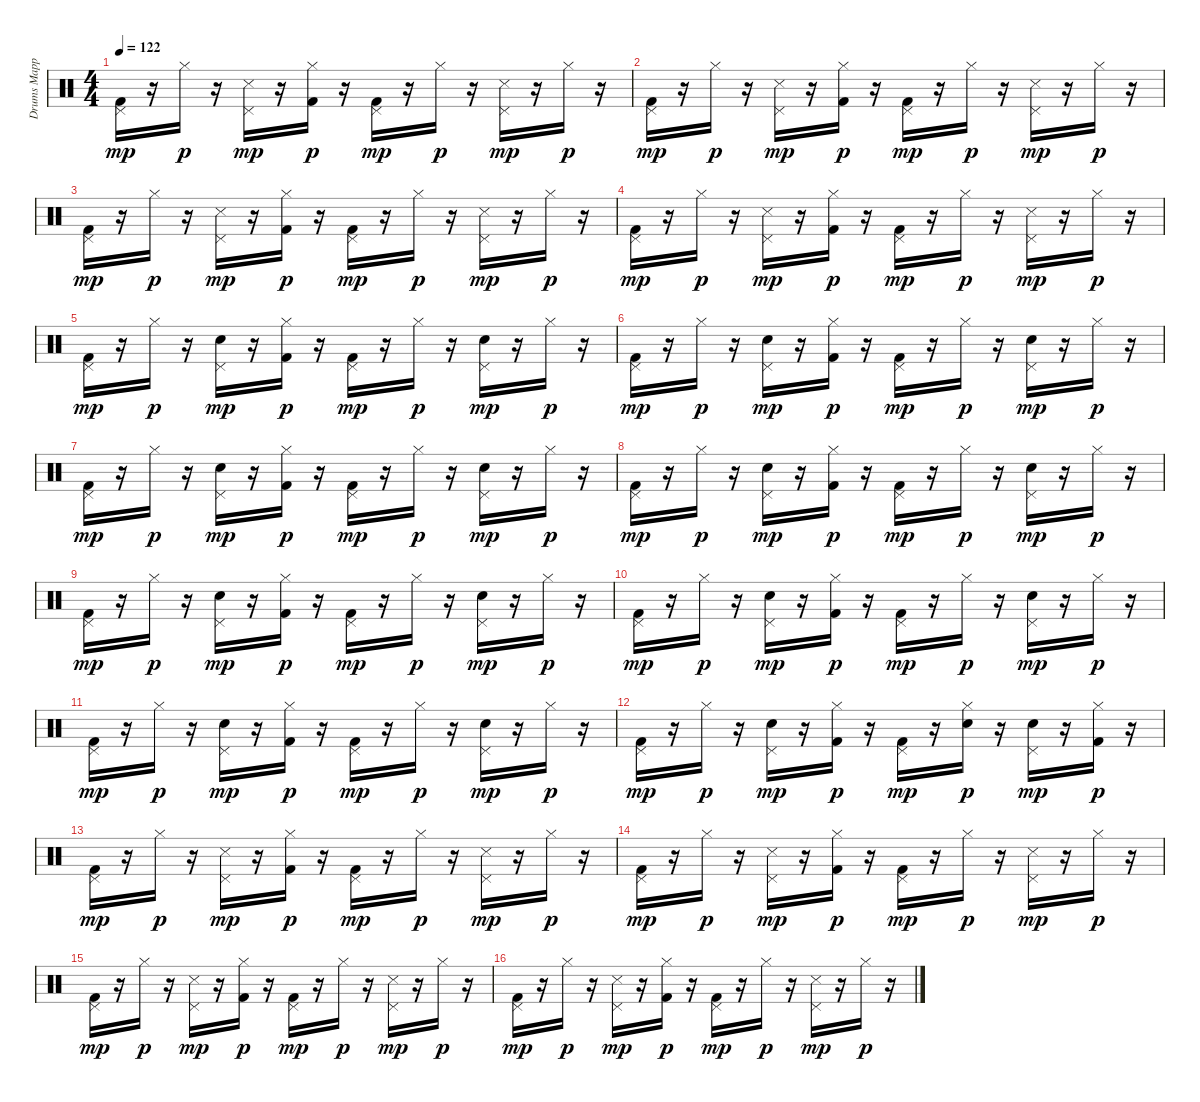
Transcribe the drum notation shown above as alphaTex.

\track ("Drums Mapped*merged" "Drums Mapp") {instrument percussion}
\staff {score}
\articulation defaults
\ts (4 4)
\tempo 122
\clef neutral
\ks c
("Kick (hit) 2" "Pedal Hi-Hat (hit)").16{dy mp} r.16 "Hi-Hat (closed)".16{dy p} r.16 ("Snare (side stick) 3" "Pedal Hi-Hat (hit)").16{dy mp} r.16 ("Kick (hit) 2" "Hi-Hat (closed)").16{dy p} r.16 ("Kick (hit) 2" "Pedal Hi-Hat (hit)").16{dy mp} r.16 "Hi-Hat (closed)".16{dy p} r.16 ("Snare (side stick) 3" "Pedal Hi-Hat (hit)").16{dy mp} r.16 "Hi-Hat (closed)".16{dy p} r.16 |
("Kick (hit) 2" "Pedal Hi-Hat (hit)").16{dy mp} r.16 "Hi-Hat (closed)".16{dy p} r.16 ("Snare (side stick) 3" "Pedal Hi-Hat (hit)").16{dy mp} r.16 ("Kick (hit) 2" "Hi-Hat (closed)").16{dy p} r.16 ("Kick (hit) 2" "Pedal Hi-Hat (hit)").16{dy mp} r.16 "Hi-Hat (closed)".16{dy p} r.16 ("Snare (side stick) 3" "Pedal Hi-Hat (hit)").16{dy mp} r.16 "Hi-Hat (closed)".16{dy p} r.16 |
("Kick (hit) 2" "Pedal Hi-Hat (hit)").16{dy mp} r.16 "Hi-Hat (closed)".16{dy p} r.16 ("Snare (side stick) 3" "Pedal Hi-Hat (hit)").16{dy mp} r.16 ("Kick (hit) 2" "Hi-Hat (closed)").16{dy p} r.16 ("Kick (hit) 2" "Pedal Hi-Hat (hit)").16{dy mp} r.16 "Hi-Hat (closed)".16{dy p} r.16 ("Snare (side stick) 3" "Pedal Hi-Hat (hit)").16{dy mp} r.16 "Hi-Hat (closed)".16{dy p} r.16 |
("Kick (hit) 2" "Pedal Hi-Hat (hit)").16{dy mp} r.16 "Hi-Hat (closed)".16{dy p} r.16 ("Snare (side stick) 3" "Pedal Hi-Hat (hit)").16{dy mp} r.16 ("Kick (hit) 2" "Hi-Hat (closed)").16{dy p} r.16 ("Kick (hit) 2" "Pedal Hi-Hat (hit)").16{dy mp} r.16 "Hi-Hat (closed)".16{dy p} r.16 ("Snare (side stick) 3" "Pedal Hi-Hat (hit)").16{dy mp} r.16 "Hi-Hat (closed)".16{dy p} r.16 |
("Kick (hit) 2" "Pedal Hi-Hat (hit)").16{dy mp} r.16 "Hi-Hat (closed)".16{dy p} r.16 ("Electric Snare (hit)" "Pedal Hi-Hat (hit)").16{dy mp} r.16 ("Kick (hit) 2" "Hi-Hat (closed)").16{dy p} r.16 ("Kick (hit) 2" "Pedal Hi-Hat (hit)").16{dy mp} r.16 "Hi-Hat (closed)".16{dy p} r.16 ("Electric Snare (hit)" "Pedal Hi-Hat (hit)").16{dy mp} r.16 "Hi-Hat (closed)".16{dy p} r.16 |
("Kick (hit) 2" "Pedal Hi-Hat (hit)").16{dy mp} r.16 "Hi-Hat (closed)".16{dy p} r.16 ("Electric Snare (hit)" "Pedal Hi-Hat (hit)").16{dy mp} r.16 ("Kick (hit) 2" "Hi-Hat (closed)").16{dy p} r.16 ("Kick (hit) 2" "Pedal Hi-Hat (hit)").16{dy mp} r.16 "Hi-Hat (closed)".16{dy p} r.16 ("Electric Snare (hit)" "Pedal Hi-Hat (hit)").16{dy mp} r.16 "Hi-Hat (closed)".16{dy p} r.16 |
("Kick (hit) 2" "Pedal Hi-Hat (hit)").16{dy mp} r.16 "Hi-Hat (closed)".16{dy p} r.16 ("Electric Snare (hit)" "Pedal Hi-Hat (hit)").16{dy mp} r.16 ("Kick (hit) 2" "Hi-Hat (closed)").16{dy p} r.16 ("Kick (hit) 2" "Pedal Hi-Hat (hit)").16{dy mp} r.16 "Hi-Hat (closed)".16{dy p} r.16 ("Electric Snare (hit)" "Pedal Hi-Hat (hit)").16{dy mp} r.16 "Hi-Hat (closed)".16{dy p} r.16 |
("Kick (hit) 2" "Pedal Hi-Hat (hit)").16{dy mp} r.16 "Hi-Hat (closed)".16{dy p} r.16 ("Electric Snare (hit)" "Pedal Hi-Hat (hit)").16{dy mp} r.16 ("Kick (hit) 2" "Hi-Hat (closed)").16{dy p} r.16 ("Kick (hit) 2" "Pedal Hi-Hat (hit)").16{dy mp} r.16 "Hi-Hat (closed)".16{dy p} r.16 ("Electric Snare (hit)" "Pedal Hi-Hat (hit)").16{dy mp} r.16 "Hi-Hat (closed)".16{dy p} r.16 |
("Kick (hit) 2" "Pedal Hi-Hat (hit)").16{dy mp} r.16 "Hi-Hat (closed)".16{dy p} r.16 ("Electric Snare (hit)" "Pedal Hi-Hat (hit)").16{dy mp} r.16 ("Kick (hit) 2" "Hi-Hat (closed)").16{dy p} r.16 ("Kick (hit) 2" "Pedal Hi-Hat (hit)").16{dy mp} r.16 "Hi-Hat (closed)".16{dy p} r.16 ("Electric Snare (hit)" "Pedal Hi-Hat (hit)").16{dy mp} r.16 "Hi-Hat (closed)".16{dy p} r.16 |
("Kick (hit) 2" "Pedal Hi-Hat (hit)").16{dy mp} r.16 "Hi-Hat (closed)".16{dy p} r.16 ("Electric Snare (hit)" "Pedal Hi-Hat (hit)").16{dy mp} r.16 ("Kick (hit) 2" "Hi-Hat (closed)").16{dy p} r.16 ("Kick (hit) 2" "Pedal Hi-Hat (hit)").16{dy mp} r.16 "Hi-Hat (closed)".16{dy p} r.16 ("Electric Snare (hit)" "Pedal Hi-Hat (hit)").16{dy mp} r.16 "Hi-Hat (closed)".16{dy p} r.16 |
("Kick (hit) 2" "Pedal Hi-Hat (hit)").16{dy mp} r.16 "Hi-Hat (closed)".16{dy p} r.16 ("Electric Snare (hit)" "Pedal Hi-Hat (hit)").16{dy mp} r.16 ("Kick (hit) 2" "Hi-Hat (closed)").16{dy p} r.16 ("Kick (hit) 2" "Pedal Hi-Hat (hit)").16{dy mp} r.16 "Hi-Hat (closed)".16{dy p} r.16 ("Electric Snare (hit)" "Pedal Hi-Hat (hit)").16{dy mp} r.16 "Hi-Hat (closed)".16{dy p} r.16 |
("Kick (hit) 2" "Pedal Hi-Hat (hit)").16{dy mp} r.16 "Hi-Hat (closed)".16{dy p} r.16 ("Electric Snare (hit)" "Pedal Hi-Hat (hit)").16{dy mp} r.16 ("Kick (hit) 2" "Hi-Hat (closed)").16{dy p} r.16 ("Kick (hit) 2" "Pedal Hi-Hat (hit)").16{dy mp} r.16 ("Electric Snare (hit)" "Hi-Hat (closed)").16{dy p} r.16 ("Electric Snare (hit)" "Pedal Hi-Hat (hit)").16{dy mp} r.16 ("Kick (hit) 2" "Hi-Hat (closed)").16{dy p} r.16 |
("Kick (hit) 2" "Pedal Hi-Hat (hit)").16{dy mp} r.16 "Hi-Hat (closed)".16{dy p} r.16 ("Snare (side stick) 3" "Pedal Hi-Hat (hit)").16{dy mp} r.16 ("Kick (hit) 2" "Hi-Hat (closed)").16{dy p} r.16 ("Kick (hit) 2" "Pedal Hi-Hat (hit)").16{dy mp} r.16 "Hi-Hat (closed)".16{dy p} r.16 ("Snare (side stick) 3" "Pedal Hi-Hat (hit)").16{dy mp} r.16 "Hi-Hat (closed)".16{dy p} r.16 |
("Kick (hit) 2" "Pedal Hi-Hat (hit)").16{dy mp} r.16 "Hi-Hat (closed)".16{dy p} r.16 ("Snare (side stick) 3" "Pedal Hi-Hat (hit)").16{dy mp} r.16 ("Kick (hit) 2" "Hi-Hat (closed)").16{dy p} r.16 ("Kick (hit) 2" "Pedal Hi-Hat (hit)").16{dy mp} r.16 "Hi-Hat (closed)".16{dy p} r.16 ("Snare (side stick) 3" "Pedal Hi-Hat (hit)").16{dy mp} r.16 "Hi-Hat (closed)".16{dy p} r.16 |
("Kick (hit) 2" "Pedal Hi-Hat (hit)").16{dy mp} r.16 "Hi-Hat (closed)".16{dy p} r.16 ("Snare (side stick) 3" "Pedal Hi-Hat (hit)").16{dy mp} r.16 ("Kick (hit) 2" "Hi-Hat (closed)").16{dy p} r.16 ("Kick (hit) 2" "Pedal Hi-Hat (hit)").16{dy mp} r.16 "Hi-Hat (closed)".16{dy p} r.16 ("Snare (side stick) 3" "Pedal Hi-Hat (hit)").16{dy mp} r.16 "Hi-Hat (closed)".16{dy p} r.16 |
("Kick (hit) 2" "Pedal Hi-Hat (hit)").16{dy mp} r.16 "Hi-Hat (closed)".16{dy p} r.16 ("Snare (side stick) 3" "Pedal Hi-Hat (hit)").16{dy mp} r.16 ("Kick (hit) 2" "Hi-Hat (closed)").16{dy p} r.16 ("Kick (hit) 2" "Pedal Hi-Hat (hit)").16{dy mp} r.16 "Hi-Hat (closed)".16{dy p} r.16 ("Snare (side stick) 3" "Pedal Hi-Hat (hit)").16{dy mp} r.16 "Hi-Hat (closed)".16{dy p} r.16
